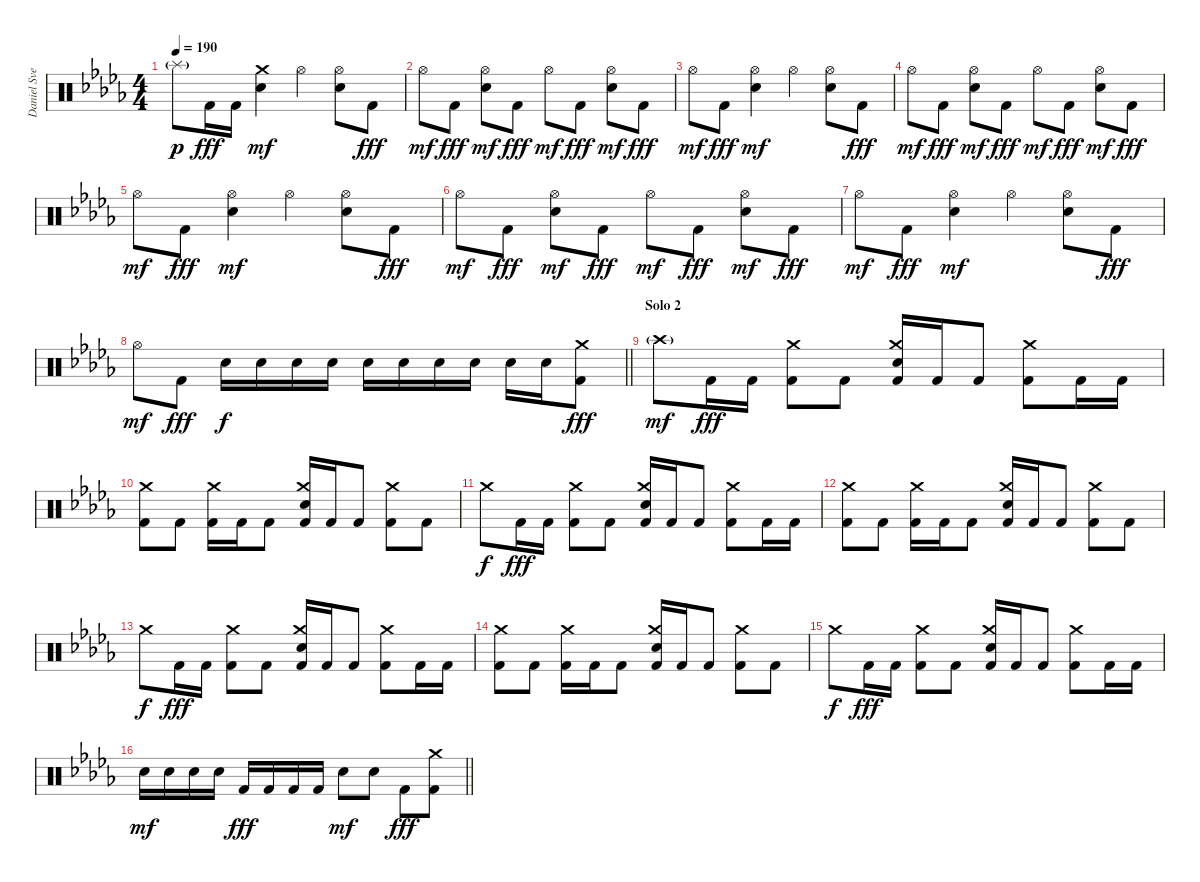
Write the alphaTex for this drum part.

\track ("Daniel Svensson" "Daniel Sve") {instrument percussion}
\staff {score}
\articulation defaults
\ts (4 4)
\tempo 190
\clef neutral
\ks db "Splash (hit)"{g}.8{dy p} "Kick (hit) 2".16{dy fff} "Kick (hit) 2".16
("Crash medium (hit)" "Electric Snare (hit)").4{dy mf} "Hi-Hat (open)".4 ("Hi-Hat (open)" "Electric Snare (hit)").8 "Kick (hit) 2".8{dy fff} |
"Hi-Hat (open)".8{dy mf} "Kick (hit) 2".8{dy fff} ("Hi-Hat (open)" "Electric Snare (hit)").8{dy mf} "Kick (hit) 2".8{dy fff} "Hi-Hat (open)".8{dy mf} "Kick (hit) 2".8{dy fff} ("Hi-Hat (open)" "Electric Snare (hit)").8{dy mf} "Kick (hit) 2".8{dy fff} |
"Hi-Hat (open)".8{dy mf} "Kick (hit) 2".8{dy fff} ("Hi-Hat (open)" "Electric Snare (hit)").4{dy mf} "Hi-Hat (open)".4 ("Hi-Hat (open)" "Electric Snare (hit)").8 "Kick (hit) 2".8{dy fff} |
"Hi-Hat (open)".8{dy mf} "Kick (hit) 2".8{dy fff} ("Hi-Hat (open)" "Electric Snare (hit)").8{dy mf} "Kick (hit) 2".8{dy fff} "Hi-Hat (open)".8{dy mf} "Kick (hit) 2".8{dy fff} ("Hi-Hat (open)" "Electric Snare (hit)").8{dy mf} "Kick (hit) 2".8{dy fff} |
"Hi-Hat (open)".8{dy mf} "Kick (hit) 2".8{dy fff} ("Hi-Hat (open)" "Electric Snare (hit)").4{dy mf} "Hi-Hat (open)".4 ("Hi-Hat (open)" "Electric Snare (hit)").8 "Kick (hit) 2".8{dy fff} |
"Hi-Hat (open)".8{dy mf} "Kick (hit) 2".8{dy fff} ("Hi-Hat (open)" "Electric Snare (hit)").8{dy mf} "Kick (hit) 2".8{dy fff} "Hi-Hat (open)".8{dy mf} "Kick (hit) 2".8{dy fff} ("Hi-Hat (open)" "Electric Snare (hit)").8{dy mf} "Kick (hit) 2".8{dy fff} |
"Hi-Hat (open)".8{dy mf} "Kick (hit) 2".8{dy fff} ("Hi-Hat (open)" "Electric Snare (hit)").4{dy mf} "Hi-Hat (open)".4 ("Hi-Hat (open)" "Electric Snare (hit)").8 "Kick (hit) 2".8{dy fff} |
\barLineRight lightlight "Hi-Hat (open)".8{dy mf} "Kick (hit) 2".8{dy fff} "Electric Snare (hit)".16{dy f} "Electric Snare (hit)".16 "Electric Snare (hit)".16 "Electric Snare (hit)".16 "Electric Snare (hit)".16 "Electric Snare (hit)".16 "Electric Snare (hit)".16 "Electric Snare (hit)".16 "Electric Snare (hit)".16 "Electric Snare (hit)".16
("Crash medium (hit)" "Kick (hit) 2").8{dy fff} |
\section ("" "Solo 2")
"Crash high (hit)"{g}.8{dy mf} "Kick (hit) 2".16{dy fff} "Kick (hit) 2".16 ("Crash medium (hit)" "Kick (hit) 2").8 "Kick (hit) 2".8 ("Crash medium (hit)" "Electric Snare (hit)" "Kick (hit) 2").16 "Kick (hit) 2".16 "Kick (hit) 2".8 ("Crash medium (hit)" "Kick (hit) 2").8 "Kick (hit) 2".16 "Kick (hit) 2".16 |
("Crash medium (hit)" "Kick (hit) 2").8 "Kick (hit) 2".8 ("Crash medium (hit)" "Kick (hit) 2").16 "Kick (hit) 2".16 "Kick (hit) 2".8 ("Crash medium (hit)" "Electric Snare (hit)" "Kick (hit) 2").16 "Kick (hit) 2".16 "Kick (hit) 2".8 ("Crash medium (hit)" "Kick (hit) 2").8 "Kick (hit) 2".8 |
"Crash medium (hit)".8{dy f} "Kick (hit) 2".16{dy fff} "Kick (hit) 2".16 ("Crash medium (hit)" "Kick (hit) 2").8 "Kick (hit) 2".8 ("Crash medium (hit)" "Electric Snare (hit)" "Kick (hit) 2").16 "Kick (hit) 2".16 "Kick (hit) 2".8 ("Crash medium (hit)" "Kick (hit) 2").8 "Kick (hit) 2".16 "Kick (hit) 2".16 |
("Crash medium (hit)" "Kick (hit) 2").8 "Kick (hit) 2".8 ("Crash medium (hit)" "Kick (hit) 2").16 "Kick (hit) 2".16 "Kick (hit) 2".8 ("Crash medium (hit)" "Electric Snare (hit)" "Kick (hit) 2").16 "Kick (hit) 2".16 "Kick (hit) 2".8 ("Crash medium (hit)" "Kick (hit) 2").8 "Kick (hit) 2".8 |
"Crash medium (hit)".8{dy f} "Kick (hit) 2".16{dy fff} "Kick (hit) 2".16 ("Crash medium (hit)" "Kick (hit) 2").8 "Kick (hit) 2".8 ("Crash medium (hit)" "Electric Snare (hit)" "Kick (hit) 2").16 "Kick (hit) 2".16 "Kick (hit) 2".8 ("Crash medium (hit)" "Kick (hit) 2").8 "Kick (hit) 2".16 "Kick (hit) 2".16 |
("Crash medium (hit)" "Kick (hit) 2").8 "Kick (hit) 2".8 ("Crash medium (hit)" "Kick (hit) 2").16 "Kick (hit) 2".16 "Kick (hit) 2".8 ("Crash medium (hit)" "Electric Snare (hit)" "Kick (hit) 2").16 "Kick (hit) 2".16 "Kick (hit) 2".8 ("Crash medium (hit)" "Kick (hit) 2").8 "Kick (hit) 2".8 |
"Crash medium (hit)".8{dy f} "Kick (hit) 2".16{dy fff} "Kick (hit) 2".16 ("Crash medium (hit)" "Kick (hit) 2").8 "Kick (hit) 2".8 ("Crash medium (hit)" "Electric Snare (hit)" "Kick (hit) 2").16 "Kick (hit) 2".16 "Kick (hit) 2".8 ("Crash medium (hit)" "Kick (hit) 2").8 "Kick (hit) 2".16 "Kick (hit) 2".16 |
\barLineRight lightlight "Electric Snare (hit)".16{dy mf} "Electric Snare (hit)".16 "Electric Snare (hit)".16 "Electric Snare (hit)".16 "Kick (hit) 2".16{dy fff} "Kick (hit) 2".16 "Kick (hit) 2".16 "Kick (hit) 2".16 "Electric Snare (hit)".8{dy mf} "Electric Snare (hit)".8 "Kick (hit) 2".8{dy fff}
("Crash medium (hit)" "Kick (hit) 2").8
